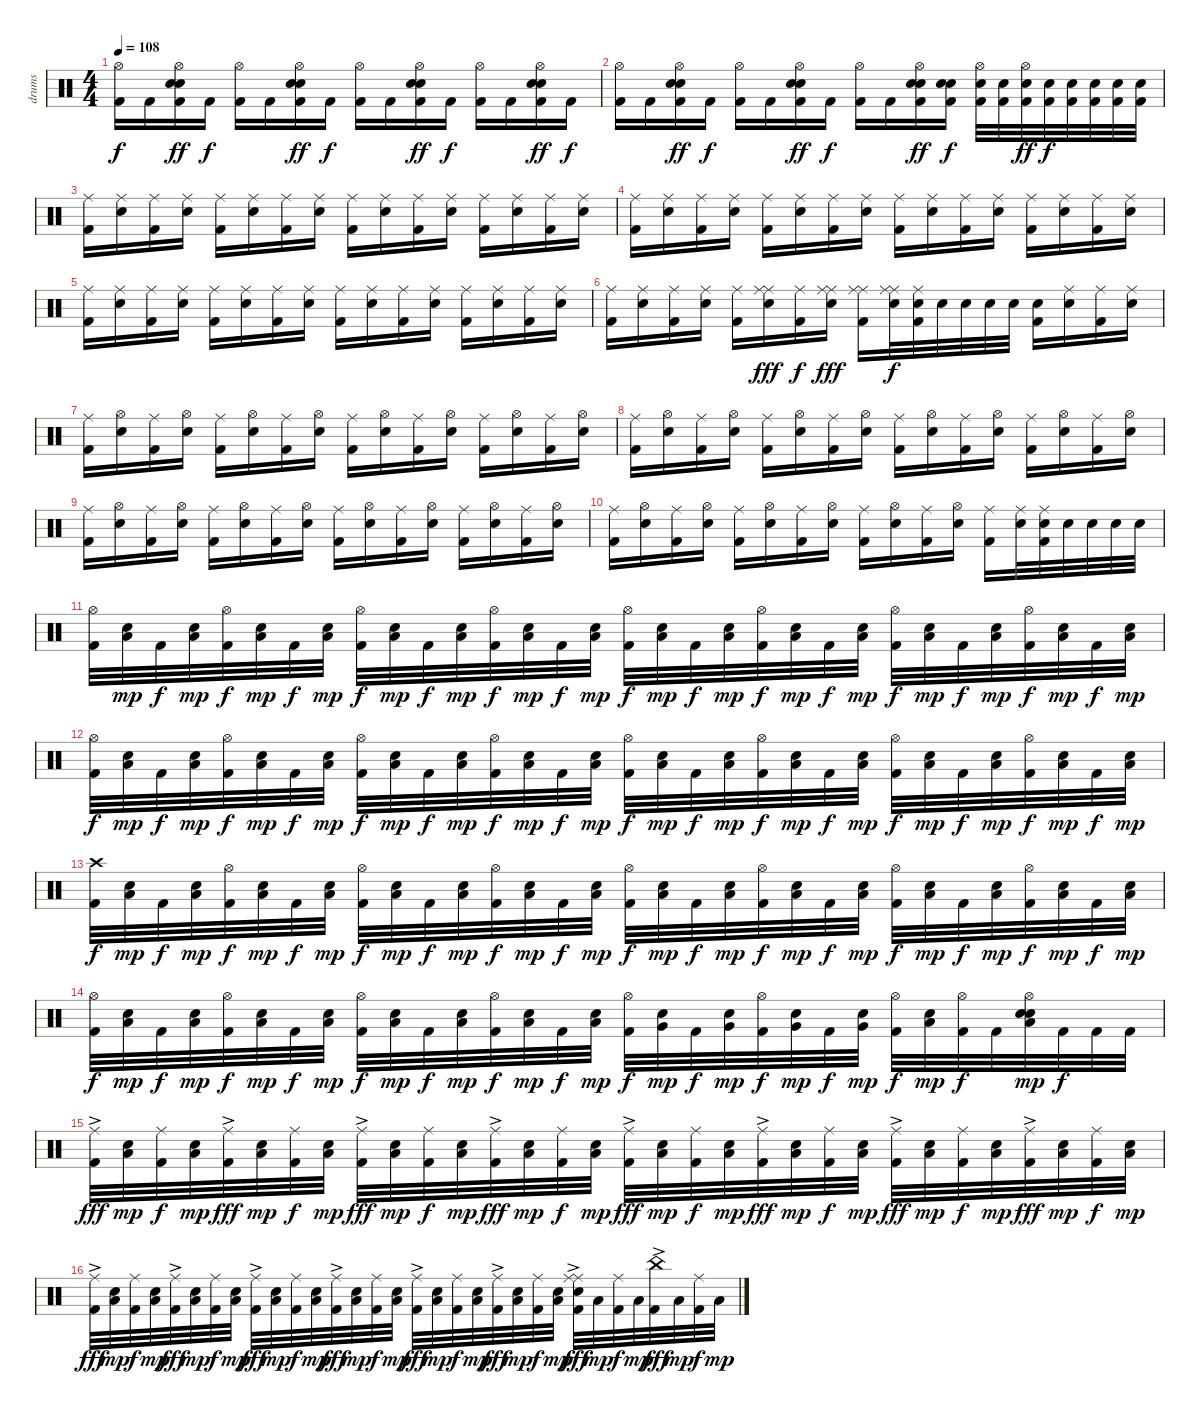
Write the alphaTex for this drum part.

\track ("drums" "drums") {instrument percussion}
\staff {score}
\articulation defaults
\ts (4 4)
\tempo 108
\clef neutral
\ks c
("Hi-Hat (open)" "Kick (hit) 2").16{dy f} "Kick (hit) 2".16 ("Electric Snare (hit)" "Hand Clap (hit)" "Hi-Hat (open)" "Kick (hit) 2").16{dy ff} "Kick (hit) 2".16{dy f} ("Hi-Hat (open)" "Kick (hit) 2").16 "Kick (hit) 2".16 ("Electric Snare (hit)" "Hand Clap (hit)" "Hi-Hat (open)" "Kick (hit) 2").16{dy ff} "Kick (hit) 2".16{dy f} ("Hi-Hat (open)" "Kick (hit) 2").16 "Kick (hit) 2".16 ("Electric Snare (hit)" "Hand Clap (hit)" "Hi-Hat (open)" "Kick (hit) 2").16{dy ff} "Kick (hit) 2".16{dy f} ("Hi-Hat (open)" "Kick (hit) 2").16 "Kick (hit) 2".16 ("Electric Snare (hit)" "Hand Clap (hit)" "Hi-Hat (open)" "Kick (hit) 2").16{dy ff} "Kick (hit) 2".16{dy f} |
("Hi-Hat (open)" "Kick (hit) 2").16 "Kick (hit) 2".16 ("Electric Snare (hit)" "Hand Clap (hit)" "Hi-Hat (open)" "Kick (hit) 2").16{dy ff} "Kick (hit) 2".16{dy f} ("Hi-Hat (open)" "Kick (hit) 2").16 "Kick (hit) 2".16 ("Electric Snare (hit)" "Hand Clap (hit)" "Hi-Hat (open)" "Kick (hit) 2").16{dy ff} "Kick (hit) 2".16{dy f} ("Hi-Hat (open)" "Kick (hit) 2").16 "Kick (hit) 2".16 ("Electric Snare (hit)" "Hand Clap (hit)" "Hi-Hat (open)" "Kick (hit) 2").16{dy ff} ("Electric Snare (hit)" "Hand Clap (hit)" "Kick (hit) 2").16{dy f} ("Electric Snare (hit)" "Hi-Hat (open)" "Kick (hit) 2").32 ("Electric Snare (hit)" "Kick (hit) 2").32 ("Electric Snare (hit)" "Hi-Hat (open)" "Kick (hit) 2").32{dy ff} ("Electric Snare (hit)" "Kick (hit) 2").32{dy f} ("Electric Snare (hit)" "Kick (hit) 2").32 ("Electric Snare (hit)" "Kick (hit) 2").32 ("Electric Snare (hit)" "Kick (hit) 2").32 ("Electric Snare (hit)" "Kick (hit) 2").32 |
("Ride (middle)" "Kick (hit) 2").16 ("Electric Snare (hit)" "Ride (middle)").16 ("Ride (middle)" "Kick (hit) 2").16 ("Electric Snare (hit)" "Ride (middle)").16 ("Ride (middle)" "Kick (hit) 2").16 ("Electric Snare (hit)" "Ride (middle)").16 ("Ride (middle)" "Kick (hit) 2").16 ("Electric Snare (hit)" "Ride (middle)").16 ("Ride (middle)" "Kick (hit) 2").16 ("Electric Snare (hit)" "Ride (middle)").16 ("Ride (middle)" "Kick (hit) 2").16 ("Electric Snare (hit)" "Ride (middle)").16 ("Ride (middle)" "Kick (hit) 2").16 ("Electric Snare (hit)" "Ride (middle)").16 ("Ride (middle)" "Kick (hit) 2").16 ("Electric Snare (hit)" "Ride (middle)").16 |
("Ride (middle)" "Kick (hit) 2").16 ("Electric Snare (hit)" "Ride (middle)").16 ("Ride (middle)" "Kick (hit) 2").16 ("Electric Snare (hit)" "Ride (middle)").16 ("Ride (middle)" "Kick (hit) 2").16 ("Electric Snare (hit)" "Ride (middle)").16 ("Ride (middle)" "Kick (hit) 2").16 ("Electric Snare (hit)" "Ride (middle)").16 ("Ride (middle)" "Kick (hit) 2").16 ("Electric Snare (hit)" "Ride (middle)").16 ("Ride (middle)" "Kick (hit) 2").16 ("Electric Snare (hit)" "Ride (middle)").16 ("Ride (middle)" "Kick (hit) 2").16 ("Electric Snare (hit)" "Ride (middle)").16 ("Ride (middle)" "Kick (hit) 2").16 ("Electric Snare (hit)" "Ride (middle)").16 |
("Ride (middle)" "Kick (hit) 2").16 ("Electric Snare (hit)" "Ride (middle)").16 ("Ride (middle)" "Kick (hit) 2").16 ("Electric Snare (hit)" "Ride (middle)").16 ("Ride (middle)" "Kick (hit) 2").16 ("Electric Snare (hit)" "Ride (middle)").16 ("Ride (middle)" "Kick (hit) 2").16 ("Electric Snare (hit)" "Ride (middle)").16 ("Ride (middle)" "Kick (hit) 2").16 ("Electric Snare (hit)" "Ride (middle)").16 ("Ride (middle)" "Kick (hit) 2").16 ("Electric Snare (hit)" "Ride (middle)").16 ("Ride (middle)" "Kick (hit) 2").16 ("Electric Snare (hit)" "Ride (middle)").16 ("Ride (middle)" "Kick (hit) 2").16 ("Electric Snare (hit)" "Ride (middle)").16 |
("Ride (middle)" "Kick (hit) 2").16 ("Electric Snare (hit)" "Ride (middle)").16 ("Ride (middle)" "Kick (hit) 2").16 ("Electric Snare (hit)" "Ride (middle)").16 ("Ride (middle)" "Kick (hit) 2").16 ("Electric Snare (hit)" "Ride (middle)" "Ride (middle)").16{dy fff} ("Ride (middle)" "Kick (hit) 2").16{dy f} ("Electric Snare (hit)" "Ride (middle)" "Ride (middle)").16{dy fff} ("Ride (middle)" "Ride (middle)" "Kick (hit) 2").16 ("Electric Snare (hit)" "Ride (middle)" "Ride (middle)").32{dy f} ("Electric Snare (hit)" "Ride (middle)" "Kick (hit) 2").32 "Electric Snare (hit)".32 "Electric Snare (hit)".32 "Electric Snare (hit)".32 "Electric Snare (hit)".32 ("Electric Snare (hit)" "Kick (hit) 2").16 ("Electric Snare (hit)" "Ride (middle)").16 ("Ride (middle)" "Kick (hit) 2").16 ("Electric Snare (hit)" "Ride (middle)").16 |
("Ride (middle)" "Kick (hit) 2").16 ("Electric Snare (hit)" "Hi-Hat (open)").16 ("Ride (middle)" "Kick (hit) 2").16 ("Electric Snare (hit)" "Hi-Hat (open)").16 ("Ride (middle)" "Kick (hit) 2").16 ("Electric Snare (hit)" "Hi-Hat (open)").16 ("Ride (middle)" "Kick (hit) 2").16 ("Electric Snare (hit)" "Hi-Hat (open)").16 ("Ride (middle)" "Kick (hit) 2").16 ("Electric Snare (hit)" "Hi-Hat (open)").16 ("Ride (middle)" "Kick (hit) 2").16 ("Electric Snare (hit)" "Hi-Hat (open)").16 ("Ride (middle)" "Kick (hit) 2").16 ("Electric Snare (hit)" "Hi-Hat (open)").16 ("Ride (middle)" "Kick (hit) 2").16 ("Electric Snare (hit)" "Hi-Hat (open)").16 |
("Ride (middle)" "Kick (hit) 2").16 ("Electric Snare (hit)" "Hi-Hat (open)").16 ("Ride (middle)" "Kick (hit) 2").16 ("Electric Snare (hit)" "Hi-Hat (open)").16 ("Ride (middle)" "Kick (hit) 2").16 ("Electric Snare (hit)" "Hi-Hat (open)").16 ("Ride (middle)" "Kick (hit) 2").16 ("Electric Snare (hit)" "Hi-Hat (open)").16 ("Ride (middle)" "Kick (hit) 2").16 ("Electric Snare (hit)" "Hi-Hat (open)").16 ("Ride (middle)" "Kick (hit) 2").16 ("Electric Snare (hit)" "Hi-Hat (open)").16 ("Ride (middle)" "Kick (hit) 2").16 ("Electric Snare (hit)" "Hi-Hat (open)").16 ("Ride (middle)" "Kick (hit) 2").16 ("Electric Snare (hit)" "Hi-Hat (open)").16 |
("Ride (middle)" "Kick (hit) 2").16 ("Electric Snare (hit)" "Hi-Hat (open)").16 ("Ride (middle)" "Kick (hit) 2").16 ("Electric Snare (hit)" "Hi-Hat (open)").16 ("Ride (middle)" "Kick (hit) 2").16 ("Electric Snare (hit)" "Hi-Hat (open)").16 ("Ride (middle)" "Kick (hit) 2").16 ("Electric Snare (hit)" "Hi-Hat (open)").16 ("Ride (middle)" "Kick (hit) 2").16 ("Electric Snare (hit)" "Hi-Hat (open)").16 ("Ride (middle)" "Kick (hit) 2").16 ("Electric Snare (hit)" "Hi-Hat (open)").16 ("Ride (middle)" "Kick (hit) 2").16 ("Electric Snare (hit)" "Hi-Hat (open)").16 ("Ride (middle)" "Kick (hit) 2").16 ("Electric Snare (hit)" "Hi-Hat (open)").16 |
("Ride (middle)" "Kick (hit) 2").16 ("Electric Snare (hit)" "Hi-Hat (open)").16 ("Ride (middle)" "Kick (hit) 2").16 ("Electric Snare (hit)" "Hi-Hat (open)").16 ("Ride (middle)" "Kick (hit) 2").16 ("Electric Snare (hit)" "Hi-Hat (open)").16 ("Ride (middle)" "Kick (hit) 2").16 ("Electric Snare (hit)" "Hi-Hat (open)").16 ("Ride (middle)" "Kick (hit) 2").16 ("Electric Snare (hit)" "Hi-Hat (open)").16 ("Ride (middle)" "Kick (hit) 2").16 ("Electric Snare (hit)" "Hi-Hat (open)").16 ("Ride (middle)" "Kick (hit) 2").16 ("Electric Snare (hit)" "Ride (middle)").32 ("Electric Snare (hit)" "Ride (middle)" "Kick (hit) 2").32 "Electric Snare (hit)".32 "Electric Snare (hit)".32 "Electric Snare (hit)".32 "Electric Snare (hit)".32 |
("Hi-Hat (open)" "Kick (hit) 2").32 ("Electric Snare (hit)" "Low Tom (hit)").32{dy mp} "Kick (hit) 2".32{dy f} ("Electric Snare (hit)" "Low Tom (hit)").32{dy mp} ("Hi-Hat (open)" "Kick (hit) 2").32{dy f} ("Electric Snare (hit)" "Low Tom (hit)").32{dy mp} "Kick (hit) 2".32{dy f} ("Electric Snare (hit)" "Low Tom (hit)").32{dy mp} ("Hi-Hat (open)" "Kick (hit) 2").32{dy f} ("Electric Snare (hit)" "Low Tom (hit)").32{dy mp} "Kick (hit) 2".32{dy f} ("Electric Snare (hit)" "Low Tom (hit)").32{dy mp} ("Hi-Hat (open)" "Kick (hit) 2").32{dy f} ("Electric Snare (hit)" "Low Tom (hit)").32{dy mp} "Kick (hit) 2".32{dy f} ("Electric Snare (hit)" "Low Tom (hit)").32{dy mp} ("Hi-Hat (open)" "Kick (hit) 2").32{dy f} ("Electric Snare (hit)" "Low Tom (hit)").32{dy mp} "Kick (hit) 2".32{dy f} ("Electric Snare (hit)" "Low Tom (hit)").32{dy mp} ("Hi-Hat (open)" "Kick (hit) 2").32{dy f} ("Electric Snare (hit)" "Low Tom (hit)").32{dy mp} "Kick (hit) 2".32{dy f} ("Electric Snare (hit)" "Low Tom (hit)").32{dy mp} ("Hi-Hat (open)" "Kick (hit) 2").32{dy f} ("Electric Snare (hit)" "Low Tom (hit)").32{dy mp} "Kick (hit) 2".32{dy f} ("Electric Snare (hit)" "Low Tom (hit)").32{dy mp} ("Hi-Hat (open)" "Kick (hit) 2").32{dy f} ("Electric Snare (hit)" "Low Tom (hit)").32{dy mp} "Kick (hit) 2".32{dy f} ("Electric Snare (hit)" "Low Tom (hit)").32{dy mp} |
("Hi-Hat (open)" "Kick (hit) 2").32{dy f} ("Electric Snare (hit)" "Low Tom (hit)").32{dy mp} "Kick (hit) 2".32{dy f} ("Electric Snare (hit)" "Low Tom (hit)").32{dy mp} ("Hi-Hat (open)" "Kick (hit) 2").32{dy f} ("Electric Snare (hit)" "Low Tom (hit)").32{dy mp} "Kick (hit) 2".32{dy f} ("Electric Snare (hit)" "Low Tom (hit)").32{dy mp} ("Hi-Hat (open)" "Kick (hit) 2").32{dy f} ("Electric Snare (hit)" "Low Tom (hit)").32{dy mp} "Kick (hit) 2".32{dy f} ("Electric Snare (hit)" "Low Tom (hit)").32{dy mp} ("Hi-Hat (open)" "Kick (hit) 2").32{dy f} ("Electric Snare (hit)" "Low Tom (hit)").32{dy mp} "Kick (hit) 2".32{dy f} ("Electric Snare (hit)" "Low Tom (hit)").32{dy mp} ("Hi-Hat (open)" "Kick (hit) 2").32{dy f} ("Electric Snare (hit)" "Low Tom (hit)").32{dy mp} "Kick (hit) 2".32{dy f} ("Electric Snare (hit)" "Low Tom (hit)").32{dy mp} ("Hi-Hat (open)" "Kick (hit) 2").32{dy f} ("Electric Snare (hit)" "Low Tom (hit)").32{dy mp} "Kick (hit) 2".32{dy f} ("Electric Snare (hit)" "Low Tom (hit)").32{dy mp} ("Hi-Hat (open)" "Kick (hit) 2").32{dy f} ("Electric Snare (hit)" "Low Tom (hit)").32{dy mp} "Kick (hit) 2".32{dy f} ("Electric Snare (hit)" "Low Tom (hit)").32{dy mp} ("Hi-Hat (open)" "Kick (hit) 2").32{dy f} ("Electric Snare (hit)" "Low Tom (hit)").32{dy mp} "Kick (hit) 2".32{dy f} ("Electric Snare (hit)" "Low Tom (hit)").32{dy mp} |
("Crash high (hit)" "Kick (hit) 2").32{dy f} ("Electric Snare (hit)" "Low Tom (hit)").32{dy mp} "Kick (hit) 2".32{dy f} ("Electric Snare (hit)" "Low Tom (hit)").32{dy mp} ("Hi-Hat (open)" "Kick (hit) 2").32{dy f} ("Electric Snare (hit)" "Low Tom (hit)").32{dy mp} "Kick (hit) 2".32{dy f} ("Electric Snare (hit)" "Low Tom (hit)").32{dy mp} ("Hi-Hat (open)" "Kick (hit) 2").32{dy f} ("Electric Snare (hit)" "Low Tom (hit)").32{dy mp} "Kick (hit) 2".32{dy f} ("Electric Snare (hit)" "Low Tom (hit)").32{dy mp} ("Hi-Hat (open)" "Kick (hit) 2").32{dy f} ("Electric Snare (hit)" "Low Tom (hit)").32{dy mp} "Kick (hit) 2".32{dy f} ("Electric Snare (hit)" "Low Tom (hit)").32{dy mp} ("Hi-Hat (open)" "Kick (hit) 2").32{dy f} ("Electric Snare (hit)" "Low Tom (hit)").32{dy mp} "Kick (hit) 2".32{dy f} ("Electric Snare (hit)" "Low Tom (hit)").32{dy mp} ("Hi-Hat (open)" "Kick (hit) 2").32{dy f} ("Electric Snare (hit)" "Low Tom (hit)").32{dy mp} "Kick (hit) 2".32{dy f} ("Electric Snare (hit)" "Low Tom (hit)").32{dy mp} ("Hi-Hat (open)" "Kick (hit) 2").32{dy f} ("Electric Snare (hit)" "Low Tom (hit)").32{dy mp} "Kick (hit) 2".32{dy f} ("Electric Snare (hit)" "Low Tom (hit)").32{dy mp} ("Hi-Hat (open)" "Kick (hit) 2").32{dy f} ("Electric Snare (hit)" "Low Tom (hit)").32{dy mp} "Kick (hit) 2".32{dy f} ("Electric Snare (hit)" "Low Tom (hit)").32{dy mp} |
("Hi-Hat (open)" "Kick (hit) 2").32{dy f} ("Electric Snare (hit)" "Low Tom (hit)").32{dy mp} "Kick (hit) 2".32{dy f} ("Electric Snare (hit)" "Low Tom (hit)").32{dy mp} ("Hi-Hat (open)" "Kick (hit) 2").32{dy f} ("Electric Snare (hit)" "Low Tom (hit)").32{dy mp} "Kick (hit) 2".32{dy f} ("Electric Snare (hit)" "Low Tom (hit)").32{dy mp} ("Hi-Hat (open)" "Kick (hit) 2").32{dy f} ("Electric Snare (hit)" "Low Tom (hit)").32{dy mp} "Kick (hit) 2".32{dy f} ("Electric Snare (hit)" "Low Tom (hit)").32{dy mp} ("Hi-Hat (open)" "Kick (hit) 2").32{dy f} ("Electric Snare (hit)" "Low Tom (hit)").32{dy mp} "Kick (hit) 2".32{dy f} ("Electric Snare (hit)" "Low Tom (hit)").32{dy mp} ("Hi-Hat (open)" "Kick (hit) 2").32{dy f} ("Electric Snare (hit)" "Very Low Tom (hit)").32{dy mp} "Kick (hit) 2".32{dy f} ("Electric Snare (hit)" "Very Low Tom (hit)").32{dy mp} ("Hi-Hat (open)" "Kick (hit) 2").32{dy f} ("Electric Snare (hit)" "Very Low Tom (hit)").32{dy mp} "Kick (hit) 2".32{dy f} ("Electric Snare (hit)" "Very Low Tom (hit)").32{dy mp} ("Hi-Hat (open)" "Kick (hit) 2").32{dy f} ("Electric Snare (hit)" "Low Floor Tom (hit)").32{dy mp} ("Hi-Hat (open)" "Kick (hit) 2").32{dy f} "Kick (hit) 2".32 ("Electric Snare (hit)" "Electric Snare (hit)" "Hi-Hat (open)" "Low Floor Tom (hit)").32{dy mp} "Kick (hit) 2".32{dy f} "Kick (hit) 2".32 "Kick (hit) 2".32 |
("Ride (middle)"{ac} "Kick (hit) 2").32{dy fff} ("Electric Snare (hit)" "Low Tom (hit)").32{dy mp} ("Ride (middle)" "Kick (hit) 2").32{dy f} ("Electric Snare (hit)" "Low Tom (hit)").32{dy mp} ("Ride (middle)"{ac} "Kick (hit) 2").32{dy fff} ("Electric Snare (hit)" "Low Tom (hit)").32{dy mp} ("Ride (middle)" "Kick (hit) 2").32{dy f} ("Electric Snare (hit)" "Low Tom (hit)").32{dy mp} ("Ride (middle)"{ac} "Kick (hit) 2").32{dy fff} ("Electric Snare (hit)" "Low Tom (hit)").32{dy mp} ("Ride (middle)" "Kick (hit) 2").32{dy f} ("Electric Snare (hit)" "Low Tom (hit)").32{dy mp} ("Ride (middle)"{ac} "Kick (hit) 2").32{dy fff} ("Electric Snare (hit)" "Low Tom (hit)").32{dy mp} ("Ride (middle)" "Kick (hit) 2").32{dy f} ("Electric Snare (hit)" "Low Tom (hit)").32{dy mp} ("Ride (middle)"{ac} "Kick (hit) 2").32{dy fff} ("Electric Snare (hit)" "Low Tom (hit)").32{dy mp} ("Ride (middle)" "Kick (hit) 2").32{dy f} ("Electric Snare (hit)" "Low Tom (hit)").32{dy mp} ("Ride (middle)"{ac} "Kick (hit) 2").32{dy fff} ("Electric Snare (hit)" "Low Tom (hit)").32{dy mp} ("Ride (middle)" "Kick (hit) 2").32{dy f} ("Electric Snare (hit)" "Low Tom (hit)").32{dy mp} ("Ride (middle)"{ac} "Kick (hit) 2").32{dy fff} ("Electric Snare (hit)" "Low Tom (hit)").32{dy mp} ("Ride (middle)" "Kick (hit) 2").32{dy f} ("Electric Snare (hit)" "Low Tom (hit)").32{dy mp} ("Ride (middle)"{ac} "Kick (hit) 2").32{dy fff} ("Electric Snare (hit)" "Low Tom (hit)").32{dy mp} ("Ride (middle)" "Kick (hit) 2").32{dy f} ("Electric Snare (hit)" "Low Tom (hit)").32{dy mp} |
("Ride (middle)"{ac} "Kick (hit) 2").32{dy fff} ("Electric Snare (hit)" "Low Tom (hit)").32{dy mp} ("Ride (middle)" "Kick (hit) 2").32{dy f} ("Electric Snare (hit)" "Low Tom (hit)").32{dy mp} ("Ride (middle)"{ac} "Kick (hit) 2").32{dy fff} ("Electric Snare (hit)" "Low Tom (hit)").32{dy mp} ("Ride (middle)" "Kick (hit) 2").32{dy f} ("Electric Snare (hit)" "Low Tom (hit)").32{dy mp} ("Ride (middle)"{ac} "Kick (hit) 2").32{dy fff} ("Electric Snare (hit)" "Low Tom (hit)").32{dy mp} ("Ride (middle)" "Kick (hit) 2").32{dy f} ("Electric Snare (hit)" "Low Tom (hit)").32{dy mp} ("Ride (middle)"{ac} "Kick (hit) 2").32{dy fff} ("Electric Snare (hit)" "Low Tom (hit)").32{dy mp} ("Ride (middle)" "Kick (hit) 2").32{dy f} ("Electric Snare (hit)" "Low Tom (hit)").32{dy mp} ("Ride (middle)"{ac} "Kick (hit) 2").32{dy fff} ("Electric Snare (hit)" "Low Tom (hit)").32{dy mp} ("Ride (middle)" "Kick (hit) 2").32{dy f} ("Electric Snare (hit)" "Low Tom (hit)").32{dy mp} ("Ride (middle)"{ac} "Kick (hit) 2").32{dy fff} ("Electric Snare (hit)" "Low Tom (hit)").32{dy mp} ("Ride (middle)" "Kick (hit) 2").32{dy f} ("Electric Snare (hit)" "Low Tom (hit)").32{dy mp} ("Electric Snare (hit)" "Ride (middle)" "Ride (middle)"{ac} "Kick (hit) 2").32{dy fff} "Low Tom (hit)".32{dy mp} ("Ride (middle)" "Kick (hit) 2").32{dy f} "Low Tom (hit)".32{dy mp} ("China (hit)"{ac} "Kick (hit) 2").32{dy fff} "Low Tom (hit)".32{dy mp} ("Ride (middle)" "Kick (hit) 2").32{dy f} "Low Tom (hit)".32{dy mp}
